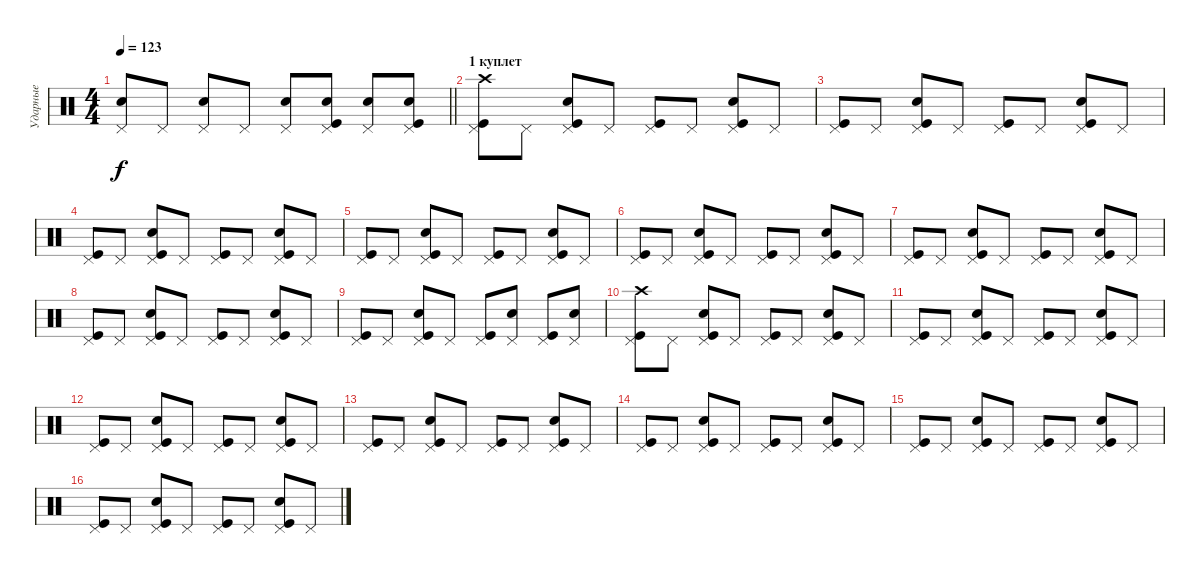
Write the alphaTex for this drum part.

\track ("Ударные" "Ударные") {instrument percussion}
\staff {score}
\articulation defaults
\ts (4 4)
\tempo 123
\clef neutral
\barLineRight lightlight
\ks c
("Pedal Hi-Hat (hit)" "Snare (hit) 2").8{dy f} "Pedal Hi-Hat (hit)".8 ("Pedal Hi-Hat (hit)" "Snare (hit) 2").8 "Pedal Hi-Hat (hit)".8 ("Pedal Hi-Hat (hit)" "Snare (hit) 2").8 ("Pedal Hi-Hat (hit)" "Kick (hit)" "Snare (hit) 2").8 ("Pedal Hi-Hat (hit)" "Snare (hit) 2").8 ("Pedal Hi-Hat (hit)" "Kick (hit)" "Snare (hit) 2").8 |
\section ("" "1 куплет")
("Pedal Hi-Hat (hit)" "Kick (hit)" "Crash high (hit)").8 "Pedal Hi-Hat (hit)".8 ("Pedal Hi-Hat (hit)" "Kick (hit)" "Snare (hit) 2").8 "Pedal Hi-Hat (hit)".8 ("Pedal Hi-Hat (hit)" "Kick (hit)").8 "Pedal Hi-Hat (hit)".8 ("Pedal Hi-Hat (hit)" "Kick (hit)" "Snare (hit) 2").8 "Pedal Hi-Hat (hit)".8 |
("Pedal Hi-Hat (hit)" "Kick (hit)").8 "Pedal Hi-Hat (hit)".8 ("Pedal Hi-Hat (hit)" "Kick (hit)" "Snare (hit) 2").8 "Pedal Hi-Hat (hit)".8 ("Pedal Hi-Hat (hit)" "Kick (hit)").8 "Pedal Hi-Hat (hit)".8 ("Pedal Hi-Hat (hit)" "Kick (hit)" "Snare (hit) 2").8 "Pedal Hi-Hat (hit)".8 |
("Pedal Hi-Hat (hit)" "Kick (hit)").8 "Pedal Hi-Hat (hit)".8 ("Pedal Hi-Hat (hit)" "Kick (hit)" "Snare (hit) 2").8 "Pedal Hi-Hat (hit)".8 ("Pedal Hi-Hat (hit)" "Kick (hit)").8 "Pedal Hi-Hat (hit)".8 ("Pedal Hi-Hat (hit)" "Kick (hit)" "Snare (hit) 2").8 "Pedal Hi-Hat (hit)".8 |
("Pedal Hi-Hat (hit)" "Kick (hit)").8 "Pedal Hi-Hat (hit)".8 ("Pedal Hi-Hat (hit)" "Kick (hit)" "Snare (hit) 2").8 "Pedal Hi-Hat (hit)".8 ("Pedal Hi-Hat (hit)" "Kick (hit)").8 "Pedal Hi-Hat (hit)".8 ("Pedal Hi-Hat (hit)" "Kick (hit)" "Snare (hit) 2").8 "Pedal Hi-Hat (hit)".8 |
("Pedal Hi-Hat (hit)" "Kick (hit)").8 "Pedal Hi-Hat (hit)".8 ("Pedal Hi-Hat (hit)" "Kick (hit)" "Snare (hit) 2").8 "Pedal Hi-Hat (hit)".8 ("Pedal Hi-Hat (hit)" "Kick (hit)").8 "Pedal Hi-Hat (hit)".8 ("Pedal Hi-Hat (hit)" "Kick (hit)" "Snare (hit) 2").8 "Pedal Hi-Hat (hit)".8 |
("Pedal Hi-Hat (hit)" "Kick (hit)").8 "Pedal Hi-Hat (hit)".8 ("Pedal Hi-Hat (hit)" "Kick (hit)" "Snare (hit) 2").8 "Pedal Hi-Hat (hit)".8 ("Pedal Hi-Hat (hit)" "Kick (hit)").8 "Pedal Hi-Hat (hit)".8 ("Pedal Hi-Hat (hit)" "Kick (hit)" "Snare (hit) 2").8 "Pedal Hi-Hat (hit)".8 |
("Pedal Hi-Hat (hit)" "Kick (hit)").8 "Pedal Hi-Hat (hit)".8 ("Pedal Hi-Hat (hit)" "Kick (hit)" "Snare (hit) 2").8 "Pedal Hi-Hat (hit)".8 ("Pedal Hi-Hat (hit)" "Kick (hit)").8 "Pedal Hi-Hat (hit)".8 ("Pedal Hi-Hat (hit)" "Kick (hit)" "Snare (hit) 2").8 "Pedal Hi-Hat (hit)".8 |
("Pedal Hi-Hat (hit)" "Kick (hit)").8 "Pedal Hi-Hat (hit)".8 ("Pedal Hi-Hat (hit)" "Kick (hit)" "Snare (hit) 2").8 "Pedal Hi-Hat (hit)".8 ("Pedal Hi-Hat (hit)" "Kick (hit)").8 ("Pedal Hi-Hat (hit)" "Snare (hit) 2").8 ("Pedal Hi-Hat (hit)" "Kick (hit)").8 ("Pedal Hi-Hat (hit)" "Snare (hit) 2").8 |
("Pedal Hi-Hat (hit)" "Kick (hit)" "Crash high (hit)").8 "Pedal Hi-Hat (hit)".8 ("Pedal Hi-Hat (hit)" "Kick (hit)" "Snare (hit) 2").8 "Pedal Hi-Hat (hit)".8 ("Pedal Hi-Hat (hit)" "Kick (hit)").8 "Pedal Hi-Hat (hit)".8 ("Pedal Hi-Hat (hit)" "Kick (hit)" "Snare (hit) 2").8 "Pedal Hi-Hat (hit)".8 |
("Pedal Hi-Hat (hit)" "Kick (hit)").8 "Pedal Hi-Hat (hit)".8 ("Pedal Hi-Hat (hit)" "Kick (hit)" "Snare (hit) 2").8 "Pedal Hi-Hat (hit)".8 ("Pedal Hi-Hat (hit)" "Kick (hit)").8 "Pedal Hi-Hat (hit)".8 ("Pedal Hi-Hat (hit)" "Kick (hit)" "Snare (hit) 2").8 "Pedal Hi-Hat (hit)".8 |
("Pedal Hi-Hat (hit)" "Kick (hit)").8 "Pedal Hi-Hat (hit)".8 ("Pedal Hi-Hat (hit)" "Kick (hit)" "Snare (hit) 2").8 "Pedal Hi-Hat (hit)".8 ("Pedal Hi-Hat (hit)" "Kick (hit)").8 "Pedal Hi-Hat (hit)".8 ("Pedal Hi-Hat (hit)" "Kick (hit)" "Snare (hit) 2").8 "Pedal Hi-Hat (hit)".8 |
("Pedal Hi-Hat (hit)" "Kick (hit)").8 "Pedal Hi-Hat (hit)".8 ("Pedal Hi-Hat (hit)" "Kick (hit)" "Snare (hit) 2").8 "Pedal Hi-Hat (hit)".8 ("Pedal Hi-Hat (hit)" "Kick (hit)").8 "Pedal Hi-Hat (hit)".8 ("Pedal Hi-Hat (hit)" "Kick (hit)" "Snare (hit) 2").8 "Pedal Hi-Hat (hit)".8 |
("Pedal Hi-Hat (hit)" "Kick (hit)").8 "Pedal Hi-Hat (hit)".8 ("Pedal Hi-Hat (hit)" "Kick (hit)" "Snare (hit) 2").8 "Pedal Hi-Hat (hit)".8 ("Pedal Hi-Hat (hit)" "Kick (hit)").8 "Pedal Hi-Hat (hit)".8 ("Pedal Hi-Hat (hit)" "Kick (hit)" "Snare (hit) 2").8 "Pedal Hi-Hat (hit)".8 |
("Pedal Hi-Hat (hit)" "Kick (hit)").8 "Pedal Hi-Hat (hit)".8 ("Pedal Hi-Hat (hit)" "Kick (hit)" "Snare (hit) 2").8 "Pedal Hi-Hat (hit)".8 ("Pedal Hi-Hat (hit)" "Kick (hit)").8 "Pedal Hi-Hat (hit)".8 ("Pedal Hi-Hat (hit)" "Kick (hit)" "Snare (hit) 2").8 "Pedal Hi-Hat (hit)".8 |
("Pedal Hi-Hat (hit)" "Kick (hit)").8 "Pedal Hi-Hat (hit)".8 ("Pedal Hi-Hat (hit)" "Kick (hit)" "Snare (hit) 2").8 "Pedal Hi-Hat (hit)".8 ("Pedal Hi-Hat (hit)" "Kick (hit)").8 "Pedal Hi-Hat (hit)".8 ("Pedal Hi-Hat (hit)" "Kick (hit)" "Snare (hit) 2").8 "Pedal Hi-Hat (hit)".8
